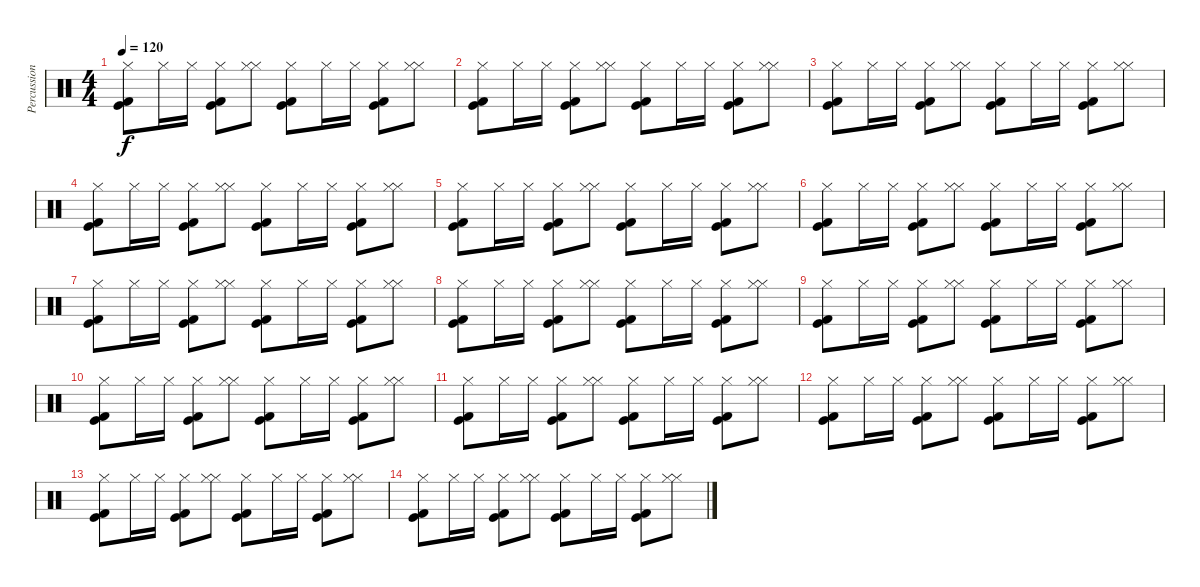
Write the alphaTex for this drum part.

\track ("Percussions" "Percussion") {instrument percussion}
\staff {score}
\articulation defaults
\ts (4 4)
\tempo 120
\clef neutral
\ks c
("Kick (hit) 2" "Kick (hit)" "Hi-Hat (closed)").8{dy f} "Hi-Hat (closed)".16 "Hi-Hat (closed)".16 ("Kick (hit) 2" "Kick (hit)" "Hi-Hat (closed)").8 ("Hi-Hat (closed)" "Hi-Hat (closed)").8 ("Kick (hit) 2" "Kick (hit)" "Hi-Hat (closed)").8 "Hi-Hat (closed)".16 "Hi-Hat (closed)".16 ("Kick (hit) 2" "Kick (hit)" "Hi-Hat (closed)").8 ("Hi-Hat (closed)" "Hi-Hat (closed)").8 |
("Kick (hit) 2" "Kick (hit)" "Hi-Hat (closed)").8 "Hi-Hat (closed)".16 "Hi-Hat (closed)".16 ("Kick (hit) 2" "Kick (hit)" "Hi-Hat (closed)").8 ("Hi-Hat (closed)" "Hi-Hat (closed)").8 ("Kick (hit) 2" "Kick (hit)" "Hi-Hat (closed)").8 "Hi-Hat (closed)".16 "Hi-Hat (closed)".16 ("Kick (hit) 2" "Kick (hit)" "Hi-Hat (closed)").8 ("Hi-Hat (closed)" "Hi-Hat (closed)").8 |
("Kick (hit) 2" "Kick (hit)" "Hi-Hat (closed)").8 "Hi-Hat (closed)".16 "Hi-Hat (closed)".16 ("Kick (hit) 2" "Kick (hit)" "Hi-Hat (closed)").8 ("Hi-Hat (closed)" "Hi-Hat (closed)").8 ("Kick (hit) 2" "Kick (hit)" "Hi-Hat (closed)").8 "Hi-Hat (closed)".16 "Hi-Hat (closed)".16 ("Kick (hit) 2" "Kick (hit)" "Hi-Hat (closed)").8 ("Hi-Hat (closed)" "Hi-Hat (closed)").8 |
("Kick (hit) 2" "Kick (hit)" "Hi-Hat (closed)").8 "Hi-Hat (closed)".16 "Hi-Hat (closed)".16 ("Kick (hit) 2" "Kick (hit)" "Hi-Hat (closed)").8 ("Hi-Hat (closed)" "Hi-Hat (closed)").8 ("Kick (hit) 2" "Kick (hit)" "Hi-Hat (closed)").8 "Hi-Hat (closed)".16 "Hi-Hat (closed)".16 ("Kick (hit) 2" "Kick (hit)" "Hi-Hat (closed)").8 ("Hi-Hat (closed)" "Hi-Hat (closed)").8 |
("Kick (hit) 2" "Kick (hit)" "Hi-Hat (closed)").8 "Hi-Hat (closed)".16 "Hi-Hat (closed)".16 ("Kick (hit) 2" "Kick (hit)" "Hi-Hat (closed)").8 ("Hi-Hat (closed)" "Hi-Hat (closed)").8 ("Kick (hit) 2" "Kick (hit)" "Hi-Hat (closed)").8 "Hi-Hat (closed)".16 "Hi-Hat (closed)".16 ("Kick (hit) 2" "Kick (hit)" "Hi-Hat (closed)").8 ("Hi-Hat (closed)" "Hi-Hat (closed)").8 |
("Kick (hit) 2" "Kick (hit)" "Hi-Hat (closed)").8 "Hi-Hat (closed)".16 "Hi-Hat (closed)".16 ("Kick (hit) 2" "Kick (hit)" "Hi-Hat (closed)").8 ("Hi-Hat (closed)" "Hi-Hat (closed)").8 ("Kick (hit) 2" "Kick (hit)" "Hi-Hat (closed)").8 "Hi-Hat (closed)".16 "Hi-Hat (closed)".16 ("Kick (hit) 2" "Kick (hit)" "Hi-Hat (closed)").8 ("Hi-Hat (closed)" "Hi-Hat (closed)").8 |
("Kick (hit) 2" "Kick (hit)" "Hi-Hat (closed)").8 "Hi-Hat (closed)".16 "Hi-Hat (closed)".16 ("Kick (hit) 2" "Kick (hit)" "Hi-Hat (closed)").8 ("Hi-Hat (closed)" "Hi-Hat (closed)").8 ("Kick (hit) 2" "Kick (hit)" "Hi-Hat (closed)").8 "Hi-Hat (closed)".16 "Hi-Hat (closed)".16 ("Kick (hit) 2" "Kick (hit)" "Hi-Hat (closed)").8 ("Hi-Hat (closed)" "Hi-Hat (closed)").8 |
("Kick (hit) 2" "Kick (hit)" "Hi-Hat (closed)").8 "Hi-Hat (closed)".16 "Hi-Hat (closed)".16 ("Kick (hit) 2" "Kick (hit)" "Hi-Hat (closed)").8 ("Hi-Hat (closed)" "Hi-Hat (closed)").8 ("Kick (hit) 2" "Kick (hit)" "Hi-Hat (closed)").8 "Hi-Hat (closed)".16 "Hi-Hat (closed)".16 ("Kick (hit) 2" "Kick (hit)" "Hi-Hat (closed)").8 ("Hi-Hat (closed)" "Hi-Hat (closed)").8 |
("Kick (hit) 2" "Kick (hit)" "Hi-Hat (closed)").8 "Hi-Hat (closed)".16 "Hi-Hat (closed)".16 ("Kick (hit) 2" "Kick (hit)" "Hi-Hat (closed)").8 ("Hi-Hat (closed)" "Hi-Hat (closed)").8 ("Kick (hit) 2" "Kick (hit)" "Hi-Hat (closed)").8 "Hi-Hat (closed)".16 "Hi-Hat (closed)".16 ("Kick (hit) 2" "Kick (hit)" "Hi-Hat (closed)").8 ("Hi-Hat (closed)" "Hi-Hat (closed)").8 |
("Kick (hit) 2" "Kick (hit)" "Hi-Hat (closed)").8 "Hi-Hat (closed)".16 "Hi-Hat (closed)".16 ("Kick (hit) 2" "Kick (hit)" "Hi-Hat (closed)").8 ("Hi-Hat (closed)" "Hi-Hat (closed)").8 ("Kick (hit) 2" "Kick (hit)" "Hi-Hat (closed)").8 "Hi-Hat (closed)".16 "Hi-Hat (closed)".16 ("Kick (hit) 2" "Kick (hit)" "Hi-Hat (closed)").8 ("Hi-Hat (closed)" "Hi-Hat (closed)").8 |
("Kick (hit) 2" "Kick (hit)" "Hi-Hat (closed)").8 "Hi-Hat (closed)".16 "Hi-Hat (closed)".16 ("Kick (hit) 2" "Kick (hit)" "Hi-Hat (closed)").8 ("Hi-Hat (closed)" "Hi-Hat (closed)").8 ("Kick (hit) 2" "Kick (hit)" "Hi-Hat (closed)").8 "Hi-Hat (closed)".16 "Hi-Hat (closed)".16 ("Kick (hit) 2" "Kick (hit)" "Hi-Hat (closed)").8 ("Hi-Hat (closed)" "Hi-Hat (closed)").8 |
("Kick (hit) 2" "Kick (hit)" "Hi-Hat (closed)").8 "Hi-Hat (closed)".16 "Hi-Hat (closed)".16 ("Kick (hit) 2" "Kick (hit)" "Hi-Hat (closed)").8 ("Hi-Hat (closed)" "Hi-Hat (closed)").8 ("Kick (hit) 2" "Kick (hit)" "Hi-Hat (closed)").8 "Hi-Hat (closed)".16 "Hi-Hat (closed)".16 ("Kick (hit) 2" "Kick (hit)" "Hi-Hat (closed)").8 ("Hi-Hat (closed)" "Hi-Hat (closed)").8 |
("Kick (hit) 2" "Kick (hit)" "Hi-Hat (closed)").8 "Hi-Hat (closed)".16 "Hi-Hat (closed)".16 ("Kick (hit) 2" "Kick (hit)" "Hi-Hat (closed)").8 ("Hi-Hat (closed)" "Hi-Hat (closed)").8 ("Kick (hit) 2" "Kick (hit)" "Hi-Hat (closed)").8 "Hi-Hat (closed)".16 "Hi-Hat (closed)".16 ("Kick (hit) 2" "Kick (hit)" "Hi-Hat (closed)").8 ("Hi-Hat (closed)" "Hi-Hat (closed)").8 |
("Kick (hit) 2" "Kick (hit)" "Hi-Hat (closed)").8 "Hi-Hat (closed)".16 "Hi-Hat (closed)".16 ("Kick (hit) 2" "Kick (hit)" "Hi-Hat (closed)").8 ("Hi-Hat (closed)" "Hi-Hat (closed)").8 ("Kick (hit) 2" "Kick (hit)" "Hi-Hat (closed)").8 "Hi-Hat (closed)".16 "Hi-Hat (closed)".16 ("Kick (hit) 2" "Kick (hit)" "Hi-Hat (closed)").8 ("Hi-Hat (closed)" "Hi-Hat (closed)").8
